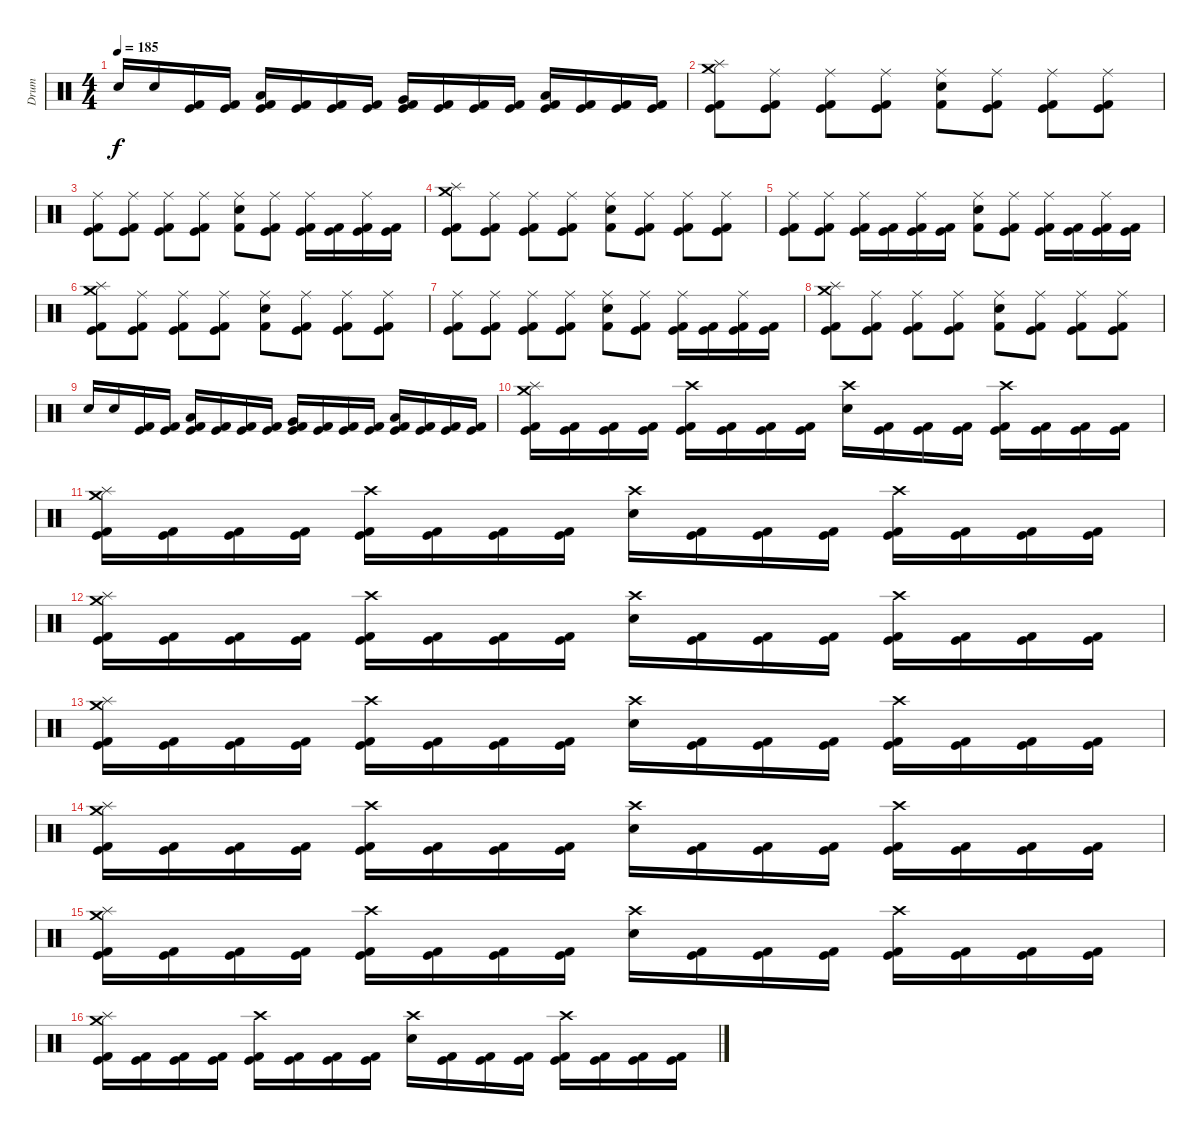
\track ("Drum" "Drum") {instrument percussion}
\staff {score}
\articulation defaults
\ts (4 4)
\tempo 185
\clef neutral
\ks c "Snare (hit) 2".16{dy f} "Snare (hit) 2".16
("Kick (hit)" "Kick (hit) 2").16 ("Kick (hit)" "Kick (hit) 2").16 ("Low Tom (hit)" "Kick (hit)" "Kick (hit) 2").16 ("Kick (hit)" "Kick (hit) 2").16 ("Kick (hit)" "Kick (hit) 2").16 ("Kick (hit)" "Kick (hit) 2").16 ("Very Low Tom (hit)" "Kick (hit)" "Kick (hit) 2").16 ("Kick (hit)" "Kick (hit) 2").16 ("Kick (hit)" "Kick (hit) 2").16 ("Kick (hit)" "Kick (hit) 2").16 ("Low Floor Tom (hit)" "Kick (hit)" "Kick (hit) 2").16 ("Kick (hit)" "Kick (hit) 2").16 ("Kick (hit)" "Kick (hit) 2").16 ("Kick (hit)" "Kick (hit) 2").16 |
("Crash medium (hit)" "Splash (hit)" "Kick (hit)" "Kick (hit) 2").8 ("Ride (middle)" "Kick (hit)" "Kick (hit) 2").8 ("Ride (middle)" "Kick (hit)" "Kick (hit) 2").8 ("Ride (middle)" "Kick (hit)" "Kick (hit) 2").8 ("Ride (middle)" "Snare (hit) 2" "Kick (hit) 2").8 ("Ride (middle)" "Kick (hit)" "Kick (hit) 2").8 ("Ride (middle)" "Kick (hit)" "Kick (hit) 2").8 ("Ride (middle)" "Kick (hit)" "Kick (hit) 2").8 |
("Ride (middle)" "Kick (hit)" "Kick (hit) 2").8 ("Ride (middle)" "Kick (hit)" "Kick (hit) 2").8 ("Ride (middle)" "Kick (hit)" "Kick (hit) 2").8 ("Ride (middle)" "Kick (hit)" "Kick (hit) 2").8 ("Ride (middle)" "Snare (hit) 2" "Kick (hit) 2").8 ("Ride (middle)" "Kick (hit)" "Kick (hit) 2").8 ("Ride (middle)" "Kick (hit)" "Kick (hit) 2").16 ("Kick (hit)" "Kick (hit) 2").16 ("Ride (middle)" "Kick (hit)" "Kick (hit) 2").16 ("Kick (hit)" "Kick (hit) 2").16 |
("Crash medium (hit)" "Splash (hit)" "Kick (hit)" "Kick (hit) 2").8 ("Ride (middle)" "Kick (hit)" "Kick (hit) 2").8 ("Ride (middle)" "Kick (hit)" "Kick (hit) 2").8 ("Ride (middle)" "Kick (hit)" "Kick (hit) 2").8 ("Ride (middle)" "Snare (hit) 2" "Kick (hit) 2").8 ("Ride (middle)" "Kick (hit)" "Kick (hit) 2").8 ("Ride (middle)" "Kick (hit)" "Kick (hit) 2").8 ("Ride (middle)" "Kick (hit)" "Kick (hit) 2").8 |
("Ride (middle)" "Kick (hit)" "Kick (hit) 2").8 ("Ride (middle)" "Kick (hit)" "Kick (hit) 2").8 ("Ride (middle)" "Kick (hit)" "Kick (hit) 2").16 ("Kick (hit)" "Kick (hit) 2").16 ("Ride (middle)" "Kick (hit)" "Kick (hit) 2").16 ("Kick (hit)" "Kick (hit) 2").16 ("Ride (middle)" "Snare (hit) 2" "Kick (hit) 2").8 ("Ride (middle)" "Kick (hit)" "Kick (hit) 2").8 ("Ride (middle)" "Kick (hit)" "Kick (hit) 2").16 ("Kick (hit)" "Kick (hit) 2").16 ("Ride (middle)" "Kick (hit)" "Kick (hit) 2").16 ("Kick (hit)" "Kick (hit) 2").16 |
("Crash medium (hit)" "Splash (hit)" "Kick (hit)" "Kick (hit) 2").8 ("Ride (middle)" "Kick (hit)" "Kick (hit) 2").8 ("Ride (middle)" "Kick (hit)" "Kick (hit) 2").8 ("Ride (middle)" "Kick (hit)" "Kick (hit) 2").8 ("Ride (middle)" "Snare (hit) 2" "Kick (hit) 2").8 ("Ride (middle)" "Kick (hit)" "Kick (hit) 2").8 ("Ride (middle)" "Kick (hit)" "Kick (hit) 2").8 ("Ride (middle)" "Kick (hit)" "Kick (hit) 2").8 |
("Ride (middle)" "Kick (hit)" "Kick (hit) 2").8 ("Ride (middle)" "Kick (hit)" "Kick (hit) 2").8 ("Ride (middle)" "Kick (hit)" "Kick (hit) 2").8 ("Ride (middle)" "Kick (hit)" "Kick (hit) 2").8 ("Ride (middle)" "Snare (hit) 2" "Kick (hit) 2").8 ("Ride (middle)" "Kick (hit)" "Kick (hit) 2").8 ("Ride (middle)" "Kick (hit)" "Kick (hit) 2").16 ("Kick (hit)" "Kick (hit) 2").16 ("Ride (middle)" "Kick (hit)" "Kick (hit) 2").16 ("Kick (hit)" "Kick (hit) 2").16 |
("Crash medium (hit)" "Splash (hit)" "Kick (hit)" "Kick (hit) 2").8 ("Ride (middle)" "Kick (hit)" "Kick (hit) 2").8 ("Ride (middle)" "Kick (hit)" "Kick (hit) 2").8 ("Ride (middle)" "Kick (hit)" "Kick (hit) 2").8 ("Ride (middle)" "Snare (hit) 2" "Kick (hit) 2").8 ("Ride (middle)" "Kick (hit)" "Kick (hit) 2").8 ("Ride (middle)" "Kick (hit)" "Kick (hit) 2").8 ("Ride (middle)" "Kick (hit)" "Kick (hit) 2").8 |
"Snare (hit) 2".16 "Snare (hit) 2".16 ("Kick (hit)" "Kick (hit) 2").16 ("Kick (hit)" "Kick (hit) 2").16 ("Low Tom (hit)" "Kick (hit)" "Kick (hit) 2").16 ("Kick (hit)" "Kick (hit) 2").16 ("Kick (hit)" "Kick (hit) 2").16 ("Kick (hit)" "Kick (hit) 2").16 ("Very Low Tom (hit)" "Kick (hit)" "Kick (hit) 2").16 ("Kick (hit)" "Kick (hit) 2").16 ("Kick (hit)" "Kick (hit) 2").16 ("Kick (hit)" "Kick (hit) 2").16 ("Low Floor Tom (hit)" "Kick (hit)" "Kick (hit) 2").16 ("Kick (hit)" "Kick (hit) 2").16 ("Kick (hit)" "Kick (hit) 2").16 ("Kick (hit)" "Kick (hit) 2").16 |
("Crash medium (hit)" "Splash (hit)" "Kick (hit)" "Kick (hit) 2").16 ("Kick (hit)" "Kick (hit) 2").16 ("Kick (hit)" "Kick (hit) 2").16 ("Kick (hit)" "Kick (hit) 2").16 ("Crash high (hit)" "Kick (hit)" "Kick (hit) 2").16 ("Kick (hit)" "Kick (hit) 2").16 ("Kick (hit)" "Kick (hit) 2").16 ("Kick (hit)" "Kick (hit) 2").16 ("Crash high (hit)" "Snare (hit) 2").16 ("Kick (hit)" "Kick (hit) 2").16 ("Kick (hit)" "Kick (hit) 2").16 ("Kick (hit)" "Kick (hit) 2").16 ("Crash high (hit)" "Kick (hit)" "Kick (hit) 2").16 ("Kick (hit)" "Kick (hit) 2").16 ("Kick (hit)" "Kick (hit) 2").16 ("Kick (hit)" "Kick (hit) 2").16 |
("Crash medium (hit)" "Splash (hit)" "Kick (hit)" "Kick (hit) 2").16 ("Kick (hit)" "Kick (hit) 2").16 ("Kick (hit)" "Kick (hit) 2").16 ("Kick (hit)" "Kick (hit) 2").16 ("Crash high (hit)" "Kick (hit)" "Kick (hit) 2").16 ("Kick (hit)" "Kick (hit) 2").16 ("Kick (hit)" "Kick (hit) 2").16 ("Kick (hit)" "Kick (hit) 2").16 ("Crash high (hit)" "Snare (hit) 2").16 ("Kick (hit)" "Kick (hit) 2").16 ("Kick (hit)" "Kick (hit) 2").16 ("Kick (hit)" "Kick (hit) 2").16 ("Crash high (hit)" "Kick (hit)" "Kick (hit) 2").16 ("Kick (hit)" "Kick (hit) 2").16 ("Kick (hit)" "Kick (hit) 2").16 ("Kick (hit)" "Kick (hit) 2").16 |
("Crash medium (hit)" "Splash (hit)" "Kick (hit)" "Kick (hit) 2").16 ("Kick (hit)" "Kick (hit) 2").16 ("Kick (hit)" "Kick (hit) 2").16 ("Kick (hit)" "Kick (hit) 2").16 ("Crash high (hit)" "Kick (hit)" "Kick (hit) 2").16 ("Kick (hit)" "Kick (hit) 2").16 ("Kick (hit)" "Kick (hit) 2").16 ("Kick (hit)" "Kick (hit) 2").16 ("Crash high (hit)" "Snare (hit) 2").16 ("Kick (hit)" "Kick (hit) 2").16 ("Kick (hit)" "Kick (hit) 2").16 ("Kick (hit)" "Kick (hit) 2").16 ("Crash high (hit)" "Kick (hit)" "Kick (hit) 2").16 ("Kick (hit)" "Kick (hit) 2").16 ("Kick (hit)" "Kick (hit) 2").16 ("Kick (hit)" "Kick (hit) 2").16 |
("Crash medium (hit)" "Splash (hit)" "Kick (hit)" "Kick (hit) 2").16 ("Kick (hit)" "Kick (hit) 2").16 ("Kick (hit)" "Kick (hit) 2").16 ("Kick (hit)" "Kick (hit) 2").16 ("Crash high (hit)" "Kick (hit)" "Kick (hit) 2").16 ("Kick (hit)" "Kick (hit) 2").16 ("Kick (hit)" "Kick (hit) 2").16 ("Kick (hit)" "Kick (hit) 2").16 ("Crash high (hit)" "Snare (hit) 2").16 ("Kick (hit)" "Kick (hit) 2").16 ("Kick (hit)" "Kick (hit) 2").16 ("Kick (hit)" "Kick (hit) 2").16 ("Crash high (hit)" "Kick (hit)" "Kick (hit) 2").16 ("Kick (hit)" "Kick (hit) 2").16 ("Kick (hit)" "Kick (hit) 2").16 ("Kick (hit)" "Kick (hit) 2").16 |
("Crash medium (hit)" "Splash (hit)" "Kick (hit)" "Kick (hit) 2").16 ("Kick (hit)" "Kick (hit) 2").16 ("Kick (hit)" "Kick (hit) 2").16 ("Kick (hit)" "Kick (hit) 2").16 ("Crash high (hit)" "Kick (hit)" "Kick (hit) 2").16 ("Kick (hit)" "Kick (hit) 2").16 ("Kick (hit)" "Kick (hit) 2").16 ("Kick (hit)" "Kick (hit) 2").16 ("Crash high (hit)" "Snare (hit) 2").16 ("Kick (hit)" "Kick (hit) 2").16 ("Kick (hit)" "Kick (hit) 2").16 ("Kick (hit)" "Kick (hit) 2").16 ("Crash high (hit)" "Kick (hit)" "Kick (hit) 2").16 ("Kick (hit)" "Kick (hit) 2").16 ("Kick (hit)" "Kick (hit) 2").16 ("Kick (hit)" "Kick (hit) 2").16 |
("Crash medium (hit)" "Splash (hit)" "Kick (hit)" "Kick (hit) 2").16 ("Kick (hit)" "Kick (hit) 2").16 ("Kick (hit)" "Kick (hit) 2").16 ("Kick (hit)" "Kick (hit) 2").16 ("Crash high (hit)" "Kick (hit)" "Kick (hit) 2").16 ("Kick (hit)" "Kick (hit) 2").16 ("Kick (hit)" "Kick (hit) 2").16 ("Kick (hit)" "Kick (hit) 2").16 ("Crash high (hit)" "Snare (hit) 2").16 ("Kick (hit)" "Kick (hit) 2").16 ("Kick (hit)" "Kick (hit) 2").16 ("Kick (hit)" "Kick (hit) 2").16 ("Crash high (hit)" "Kick (hit)" "Kick (hit) 2").16 ("Kick (hit)" "Kick (hit) 2").16 ("Kick (hit)" "Kick (hit) 2").16 ("Kick (hit)" "Kick (hit) 2").16 |
("Crash medium (hit)" "Splash (hit)" "Kick (hit)" "Kick (hit) 2").16 ("Kick (hit)" "Kick (hit) 2").16 ("Kick (hit)" "Kick (hit) 2").16 ("Kick (hit)" "Kick (hit) 2").16 ("Crash high (hit)" "Kick (hit)" "Kick (hit) 2").16 ("Kick (hit)" "Kick (hit) 2").16 ("Kick (hit)" "Kick (hit) 2").16 ("Kick (hit)" "Kick (hit) 2").16 ("Crash high (hit)" "Snare (hit) 2").16 ("Kick (hit)" "Kick (hit) 2").16 ("Kick (hit)" "Kick (hit) 2").16 ("Kick (hit)" "Kick (hit) 2").16 ("Crash high (hit)" "Kick (hit)" "Kick (hit) 2").16 ("Kick (hit)" "Kick (hit) 2").16 ("Kick (hit)" "Kick (hit) 2").16 ("Kick (hit)" "Kick (hit) 2").16
